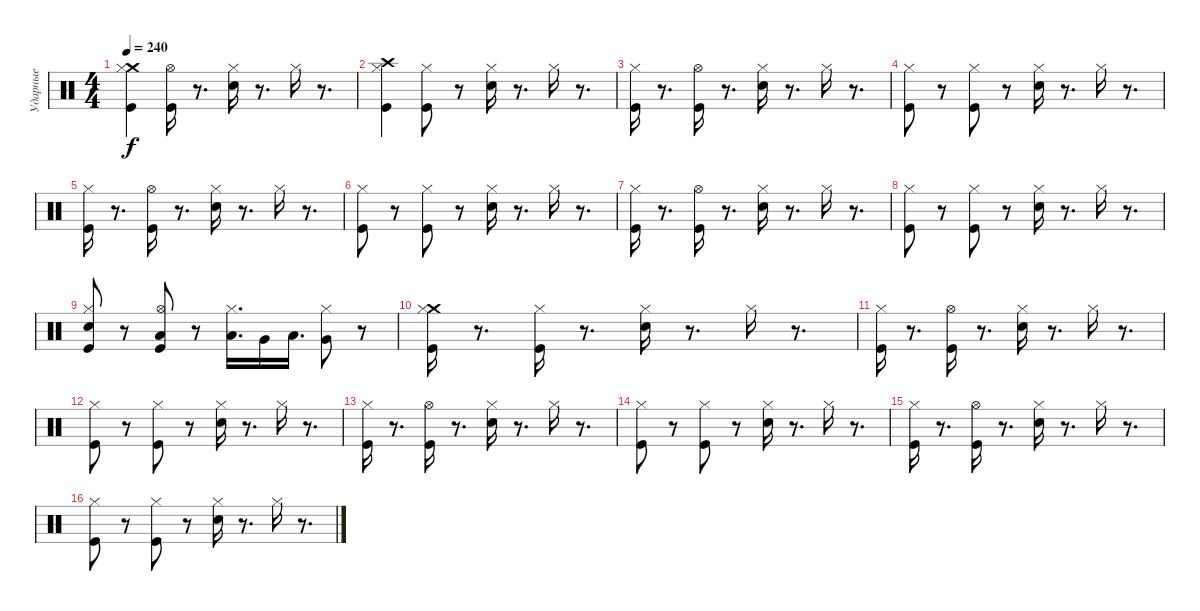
\track ("Ударные" "Ударные") {instrument percussion}
\staff {score}
\articulation defaults
\ts (4 4)
\tempo 240
\clef neutral
\ks c
("Crash medium (hit)" "Kick (hit)" "Hi-Hat (closed)").4{dy f} ("Kick (hit)" "Hi-Hat (open)").16 r.8{d} ("Snare (hit) 2" "Hi-Hat (closed)").16 r.8{d} "Hi-Hat (closed)".16 r.8{d} |
("Crash high (hit)" "Hi-Hat (closed)" "Kick (hit)").4 ("Kick (hit)" "Hi-Hat (closed)").8 r.8 ("Snare (hit) 2" "Hi-Hat (closed)").16 r.8{d} "Hi-Hat (closed)".16 r.8{d} |
("Kick (hit)" "Hi-Hat (closed)").16 r.8{d} ("Kick (hit)" "Hi-Hat (open)").16 r.8{d} ("Snare (hit) 2" "Hi-Hat (closed)").16 r.8{d} "Hi-Hat (closed)".16 r.8{d} |
("Hi-Hat (closed)" "Kick (hit)").8 r.8 ("Kick (hit)" "Hi-Hat (closed)").8 r.8 ("Snare (hit) 2" "Hi-Hat (closed)").16 r.8{d} "Hi-Hat (closed)".16 r.8{d} |
("Kick (hit)" "Hi-Hat (closed)").16 r.8{d} ("Kick (hit)" "Hi-Hat (open)").16 r.8{d} ("Snare (hit) 2" "Hi-Hat (closed)").16 r.8{d} "Hi-Hat (closed)".16 r.8{d} |
("Hi-Hat (closed)" "Kick (hit)").8 r.8 ("Kick (hit)" "Hi-Hat (closed)").8 r.8 ("Snare (hit) 2" "Hi-Hat (closed)").16 r.8{d} "Hi-Hat (closed)".16 r.8{d} |
("Kick (hit)" "Hi-Hat (closed)").16 r.8{d} ("Kick (hit)" "Hi-Hat (open)").16 r.8{d} ("Snare (hit) 2" "Hi-Hat (closed)").16 r.8{d} "Hi-Hat (closed)".16 r.8{d} |
("Hi-Hat (closed)" "Kick (hit)").8 r.8 ("Kick (hit)" "Hi-Hat (closed)").8 r.8 ("Snare (hit) 2" "Hi-Hat (closed)").16 r.8{d} "Hi-Hat (closed)".16 r.8{d} |
("Snare (hit) 2" "Kick (hit)" "Hi-Hat (closed)").8 r.8 ("Low Tom (hit)" "Kick (hit)" "Hi-Hat (open)").8 r.8 ("Low Tom (hit)" "Hi-Hat (closed)").16{d} "Very Low Tom (hit)".16 "Low Tom (hit)".16{d} ("Very Low Tom (hit)" "Hi-Hat (closed)").8 r.8 |
("Kick (hit)" "Crash medium (hit)" "Hi-Hat (closed)").16 r.8{d} ("Kick (hit)" "Hi-Hat (closed)").16 r.8{d} ("Snare (hit) 2" "Hi-Hat (closed)").16 r.8{d} "Hi-Hat (closed)".16 r.8{d} |
("Kick (hit)" "Hi-Hat (closed)").16 r.8{d} ("Kick (hit)" "Hi-Hat (open)").16 r.8{d} ("Snare (hit) 2" "Hi-Hat (closed)").16 r.8{d} "Hi-Hat (closed)".16 r.8{d} |
("Hi-Hat (closed)" "Kick (hit)").8 r.8 ("Kick (hit)" "Hi-Hat (closed)").8 r.8 ("Snare (hit) 2" "Hi-Hat (closed)").16 r.8{d} "Hi-Hat (closed)".16 r.8{d} |
("Kick (hit)" "Hi-Hat (closed)").16 r.8{d} ("Kick (hit)" "Hi-Hat (open)").16 r.8{d} ("Snare (hit) 2" "Hi-Hat (closed)").16 r.8{d} "Hi-Hat (closed)".16 r.8{d} |
("Hi-Hat (closed)" "Kick (hit)").8 r.8 ("Kick (hit)" "Hi-Hat (closed)").8 r.8 ("Snare (hit) 2" "Hi-Hat (closed)").16 r.8{d} "Hi-Hat (closed)".16 r.8{d} |
("Kick (hit)" "Hi-Hat (closed)").16 r.8{d} ("Kick (hit)" "Hi-Hat (open)").16 r.8{d} ("Snare (hit) 2" "Hi-Hat (closed)").16 r.8{d} "Hi-Hat (closed)".16 r.8{d} |
("Hi-Hat (closed)" "Kick (hit)").8 r.8 ("Kick (hit)" "Hi-Hat (closed)").8 r.8 ("Snare (hit) 2" "Hi-Hat (closed)").16 r.8{d} "Hi-Hat (closed)".16 r.8{d}
